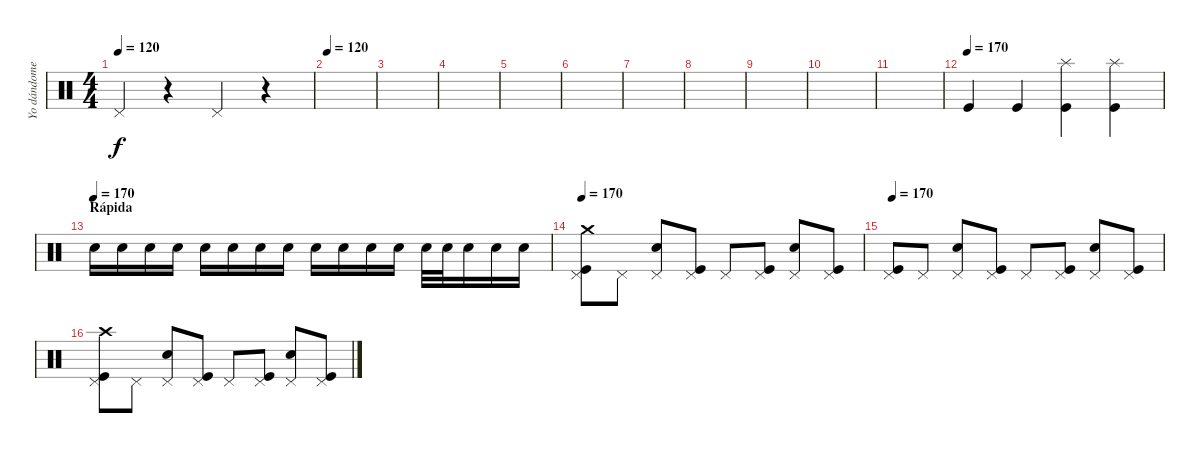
\track ("Yo dándomelas de batero." "Yo dándome") {instrument percussion}
\staff {score}
\articulation defaults
\ts (4 4)
\tempo 120
\clef neutral
\ks c "Pedal Hi-Hat (hit)".4{dy f}
r.4 "Pedal Hi-Hat (hit)".4 r.4 |
\tempo 120
|
|
|
|
|
|
|
|
|
|
\tempo (170)
"Kick (hit)".4 "Kick (hit)".4 ("Splash (hit)" "Kick (hit)").4 ("Splash (hit)" "Kick (hit)").4 |
\section ("" "Rápida")
\tempo (170)
"Electric Snare (hit)".16 "Electric Snare (hit)".16 "Electric Snare (hit)".16 "Electric Snare (hit)".16 "Electric Snare (hit)".16 "Electric Snare (hit)".16 "Electric Snare (hit)".16 "Electric Snare (hit)".16 "Electric Snare (hit)".16 "Electric Snare (hit)".16 "Electric Snare (hit)".16 "Electric Snare (hit)".16 "Electric Snare (hit)".32 "Electric Snare (hit)".32 "Electric Snare (hit)".16 "Electric Snare (hit)".16 "Electric Snare (hit)".16 |
\tempo 170
("Pedal Hi-Hat (hit)" "Crash medium (hit)" "Kick (hit)").8 "Pedal Hi-Hat (hit)".8 ("Pedal Hi-Hat (hit)" "Electric Snare (hit)").8 ("Pedal Hi-Hat (hit)" "Kick (hit)").8 "Pedal Hi-Hat (hit)".8 ("Pedal Hi-Hat (hit)" "Kick (hit)").8 ("Pedal Hi-Hat (hit)" "Electric Snare (hit)").8 ("Pedal Hi-Hat (hit)" "Kick (hit)").8 |
\tempo 170
("Pedal Hi-Hat (hit)" "Kick (hit)").8 "Pedal Hi-Hat (hit)".8 ("Pedal Hi-Hat (hit)" "Electric Snare (hit)").8 ("Pedal Hi-Hat (hit)" "Kick (hit)").8 "Pedal Hi-Hat (hit)".8 ("Pedal Hi-Hat (hit)" "Kick (hit)").8 ("Pedal Hi-Hat (hit)" "Electric Snare (hit)").8 ("Pedal Hi-Hat (hit)" "Kick (hit)").8 |
("Pedal Hi-Hat (hit)" "Crash high (hit)" "Kick (hit)").8 "Pedal Hi-Hat (hit)".8 ("Pedal Hi-Hat (hit)" "Electric Snare (hit)").8 ("Pedal Hi-Hat (hit)" "Kick (hit)").8 "Pedal Hi-Hat (hit)".8 ("Pedal Hi-Hat (hit)" "Kick (hit)").8 ("Pedal Hi-Hat (hit)" "Electric Snare (hit)").8 ("Pedal Hi-Hat (hit)" "Kick (hit)").8
